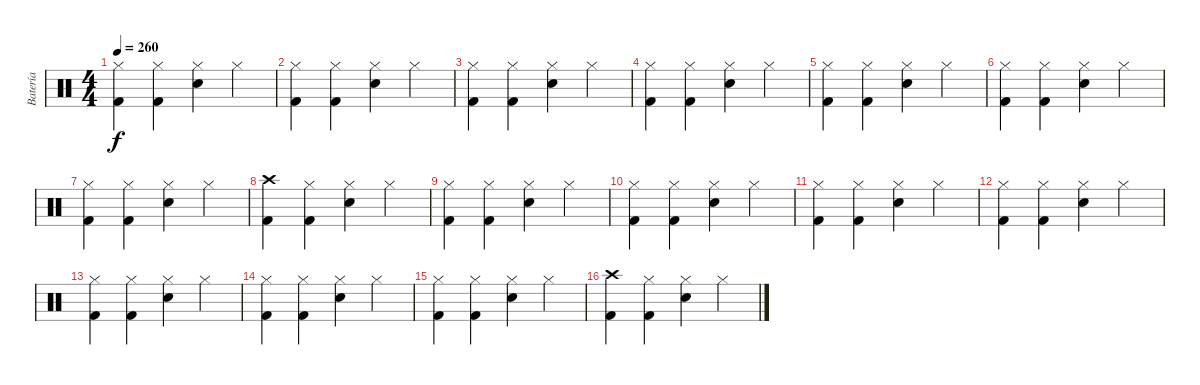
\track ("Batería" "Batería") {instrument percussion}
\staff {score}
\articulation defaults
\ts (4 4)
\tempo 260
\clef neutral
\ks c
("Kick (hit) 2" "Hi-Hat (closed)").4{dy f} ("Kick (hit) 2" "Hi-Hat (closed)").4 ("Snare (hit) 2" "Hi-Hat (closed)").4 "Hi-Hat (closed)".4 |
("Kick (hit) 2" "Hi-Hat (closed)").4 ("Kick (hit) 2" "Hi-Hat (closed)").4 ("Snare (hit) 2" "Hi-Hat (closed)").4 "Hi-Hat (closed)".4 |
("Kick (hit) 2" "Hi-Hat (closed)").4 ("Kick (hit) 2" "Hi-Hat (closed)").4 ("Snare (hit) 2" "Hi-Hat (closed)").4 "Hi-Hat (closed)".4 |
("Kick (hit) 2" "Hi-Hat (closed)").4 ("Kick (hit) 2" "Hi-Hat (closed)").4 ("Snare (hit) 2" "Hi-Hat (closed)").4 "Hi-Hat (closed)".4 |
("Kick (hit) 2" "Hi-Hat (closed)").4 ("Kick (hit) 2" "Hi-Hat (closed)").4 ("Snare (hit) 2" "Hi-Hat (closed)").4 "Hi-Hat (closed)".4 |
("Kick (hit) 2" "Hi-Hat (closed)").4 ("Kick (hit) 2" "Hi-Hat (closed)").4 ("Snare (hit) 2" "Hi-Hat (closed)").4 "Hi-Hat (closed)".4 |
("Kick (hit) 2" "Hi-Hat (closed)").4 ("Kick (hit) 2" "Hi-Hat (closed)").4 ("Snare (hit) 2" "Hi-Hat (closed)").4 "Hi-Hat (closed)".4 |
("Kick (hit) 2" "Crash high (hit)").4 ("Kick (hit) 2" "Hi-Hat (closed)").4 ("Snare (hit) 2" "Hi-Hat (closed)").4 "Hi-Hat (closed)".4 |
("Kick (hit) 2" "Hi-Hat (closed)").4 ("Kick (hit) 2" "Hi-Hat (closed)").4 ("Snare (hit) 2" "Hi-Hat (closed)").4 "Hi-Hat (closed)".4 |
("Kick (hit) 2" "Hi-Hat (closed)").4 ("Kick (hit) 2" "Hi-Hat (closed)").4 ("Snare (hit) 2" "Hi-Hat (closed)").4 "Hi-Hat (closed)".4 |
("Kick (hit) 2" "Hi-Hat (closed)").4 ("Kick (hit) 2" "Hi-Hat (closed)").4 ("Snare (hit) 2" "Hi-Hat (closed)").4 "Hi-Hat (closed)".4 |
("Kick (hit) 2" "Hi-Hat (closed)").4 ("Kick (hit) 2" "Hi-Hat (closed)").4 ("Snare (hit) 2" "Hi-Hat (closed)").4 "Hi-Hat (closed)".4 |
("Kick (hit) 2" "Hi-Hat (closed)").4 ("Kick (hit) 2" "Hi-Hat (closed)").4 ("Snare (hit) 2" "Hi-Hat (closed)").4 "Hi-Hat (closed)".4 |
("Kick (hit) 2" "Hi-Hat (closed)").4 ("Kick (hit) 2" "Hi-Hat (closed)").4 ("Snare (hit) 2" "Hi-Hat (closed)").4 "Hi-Hat (closed)".4 |
("Kick (hit) 2" "Hi-Hat (closed)").4 ("Kick (hit) 2" "Hi-Hat (closed)").4 ("Snare (hit) 2" "Hi-Hat (closed)").4 "Hi-Hat (closed)".4 |
("Kick (hit) 2" "Crash high (hit)").4 ("Kick (hit) 2" "Hi-Hat (closed)").4 ("Snare (hit) 2" "Hi-Hat (closed)").4 "Hi-Hat (closed)".4
